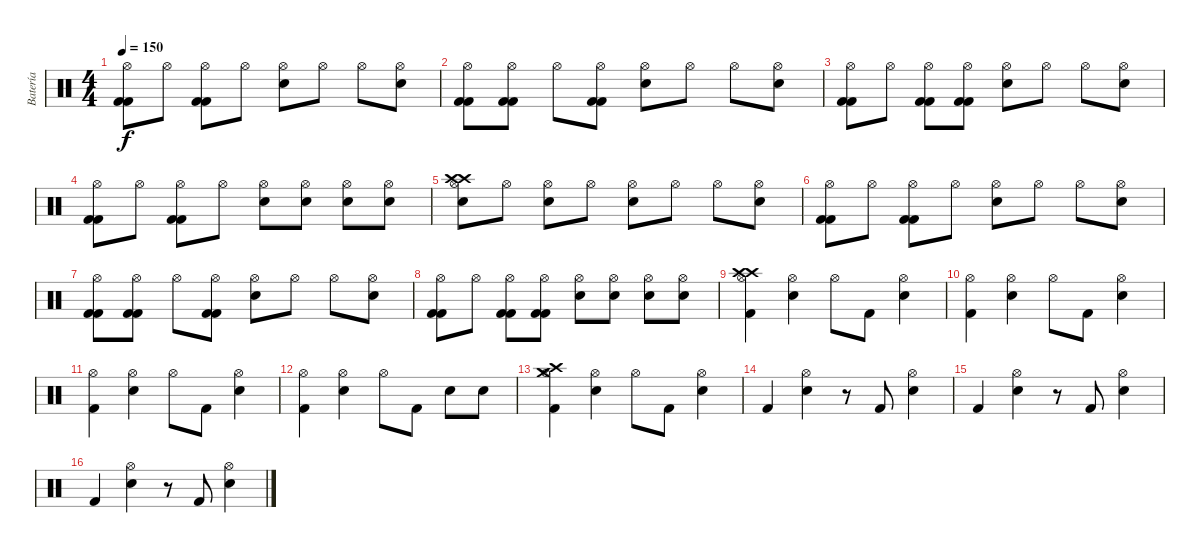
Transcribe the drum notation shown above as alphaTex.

\track ("Batería" "Batería") {instrument percussion}
\staff {score}
\articulation defaults
\ts (4 4)
\tempo 150
\clef neutral
\ks c
("Kick (hit) 2" "Kick (hit) 2" "Hi-Hat (open)").8{dy f} "Hi-Hat (open)".8 ("Kick (hit) 2" "Kick (hit) 2" "Hi-Hat (open)").8 "Hi-Hat (open)".8 ("Snare (hit) 2" "Hi-Hat (open)").8 "Hi-Hat (open)".8 "Hi-Hat (open)".8 ("Snare (hit) 2" "Hi-Hat (open)").8 |
("Kick (hit) 2" "Kick (hit) 2" "Hi-Hat (open)").8 ("Kick (hit) 2" "Kick (hit) 2" "Hi-Hat (open)").8 "Hi-Hat (open)".8 ("Kick (hit) 2" "Kick (hit) 2" "Hi-Hat (open)").8 ("Snare (hit) 2" "Hi-Hat (open)").8 "Hi-Hat (open)".8 "Hi-Hat (open)".8 ("Snare (hit) 2" "Hi-Hat (open)").8 |
("Kick (hit) 2" "Kick (hit) 2" "Hi-Hat (open)").8 "Hi-Hat (open)".8 ("Kick (hit) 2" "Kick (hit) 2" "Hi-Hat (open)").8 ("Kick (hit) 2" "Kick (hit) 2" "Hi-Hat (open)").8 ("Snare (hit) 2" "Hi-Hat (open)").8 "Hi-Hat (open)".8 "Hi-Hat (open)".8 ("Snare (hit) 2" "Hi-Hat (open)").8 |
("Kick (hit) 2" "Kick (hit) 2" "Hi-Hat (open)").8 "Hi-Hat (open)".8 ("Kick (hit) 2" "Kick (hit) 2" "Hi-Hat (open)").8 "Hi-Hat (open)".8 ("Snare (hit) 2" "Hi-Hat (open)").8 ("Snare (hit) 2" "Hi-Hat (open)").8 ("Snare (hit) 2" "Hi-Hat (open)").8 ("Snare (hit) 2" "Hi-Hat (open)").8 |
("Crash high (hit)" "Crash high (hit)" "Snare (hit) 2" "Hi-Hat (open)").8 "Hi-Hat (open)".8 ("Snare (hit) 2" "Hi-Hat (open)").8 "Hi-Hat (open)".8 ("Snare (hit) 2" "Hi-Hat (open)").8 "Hi-Hat (open)".8 "Hi-Hat (open)".8 ("Snare (hit) 2" "Hi-Hat (open)").8 |
("Kick (hit) 2" "Kick (hit) 2" "Hi-Hat (open)").8 "Hi-Hat (open)".8 ("Kick (hit) 2" "Kick (hit) 2" "Hi-Hat (open)").8 "Hi-Hat (open)".8 ("Snare (hit) 2" "Hi-Hat (open)").8 "Hi-Hat (open)".8 "Hi-Hat (open)".8 ("Snare (hit) 2" "Hi-Hat (open)").8 |
("Kick (hit) 2" "Kick (hit) 2" "Hi-Hat (open)").8 ("Kick (hit) 2" "Kick (hit) 2" "Hi-Hat (open)").8 "Hi-Hat (open)".8 ("Kick (hit) 2" "Kick (hit) 2" "Hi-Hat (open)").8 ("Snare (hit) 2" "Hi-Hat (open)").8 "Hi-Hat (open)".8 "Hi-Hat (open)".8 ("Snare (hit) 2" "Hi-Hat (open)").8 |
("Kick (hit) 2" "Kick (hit) 2" "Hi-Hat (open)").8 "Hi-Hat (open)".8 ("Kick (hit) 2" "Kick (hit) 2" "Hi-Hat (open)").8 ("Kick (hit) 2" "Kick (hit) 2" "Hi-Hat (open)").8 ("Snare (hit) 2" "Hi-Hat (open)").8 ("Snare (hit) 2" "Hi-Hat (open)").8 ("Snare (hit) 2" "Hi-Hat (open)").8 ("Snare (hit) 2" "Hi-Hat (open)").8 |
("Crash high (hit)" "Crash high (hit)" "Kick (hit) 2" "Hi-Hat (open)").4 ("Snare (hit) 2" "Hi-Hat (open)").4 "Hi-Hat (open)".8 "Kick (hit) 2".8 ("Snare (hit) 2" "Hi-Hat (open)").4 |
("Kick (hit) 2" "Hi-Hat (open)").4 ("Snare (hit) 2" "Hi-Hat (open)").4 "Hi-Hat (open)".8 "Kick (hit) 2".8 ("Snare (hit) 2" "Hi-Hat (open)").4 |
("Kick (hit) 2" "Hi-Hat (open)").4 ("Snare (hit) 2" "Hi-Hat (open)").4 "Hi-Hat (open)".8 "Kick (hit) 2".8 ("Snare (hit) 2" "Hi-Hat (open)").4 |
("Kick (hit) 2" "Hi-Hat (open)").4 ("Snare (hit) 2" "Hi-Hat (open)").4 "Hi-Hat (open)".8 "Kick (hit) 2".8 "Snare (hit) 2".8 "Snare (hit) 2".8 |
("Crash high (hit)" "Crash medium (hit)" "Kick (hit) 2" "Hi-Hat (open)").4 ("Snare (hit) 2" "Hi-Hat (open)").4 "Hi-Hat (open)".8 "Kick (hit) 2".8 ("Snare (hit) 2" "Hi-Hat (open)").4 |
"Kick (hit) 2".4 ("Snare (hit) 2" "Hi-Hat (open)").4 r.8 "Kick (hit) 2".8 ("Snare (hit) 2" "Hi-Hat (open)").4 |
"Kick (hit) 2".4 ("Snare (hit) 2" "Hi-Hat (open)").4 r.8 "Kick (hit) 2".8 ("Snare (hit) 2" "Hi-Hat (open)").4 |
"Kick (hit) 2".4 ("Snare (hit) 2" "Hi-Hat (open)").4 r.8 "Kick (hit) 2".8 ("Snare (hit) 2" "Hi-Hat (open)").4
